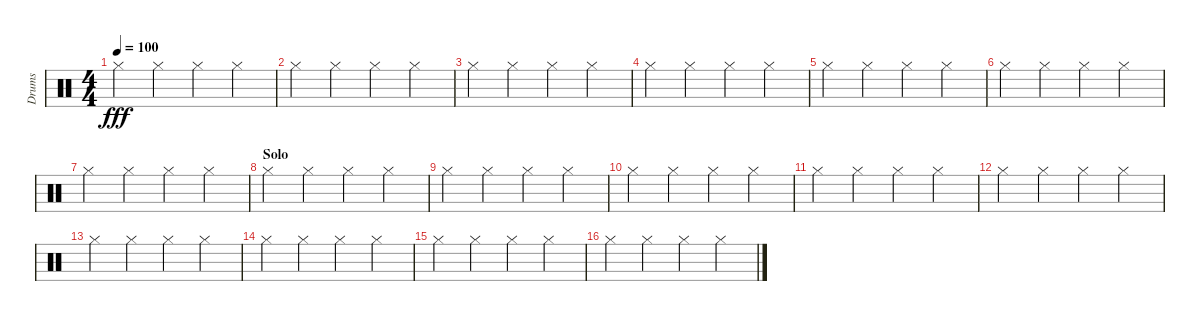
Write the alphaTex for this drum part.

\defaultSystemsLayout 4
\bracketExtendMode groupsimilarinstruments
\otherSystemsTrackNameOrientation horizontal
\track ("Prakarsh" "Drums") {instrument percussion}
\staff {score}
\articulation defaults
\ts (4 4)
\tempo 100
\clef neutral
\ks c "Hi-Hat (closed)".4{dy fff beam Down} "Hi-Hat (closed)".4{beam Down} "Hi-Hat (closed)".4{beam Down} "Hi-Hat (closed)".4{beam Down}
|
"Hi-Hat (closed)".4{beam Down} "Hi-Hat (closed)".4{beam Down} "Hi-Hat (closed)".4{beam Down} "Hi-Hat (closed)".4{beam Down} |
"Hi-Hat (closed)".4{beam Down} "Hi-Hat (closed)".4{beam Down} "Hi-Hat (closed)".4{beam Down} "Hi-Hat (closed)".4{beam Down} |
"Hi-Hat (closed)".4{beam Down} "Hi-Hat (closed)".4{beam Down} "Hi-Hat (closed)".4{beam Down} "Hi-Hat (closed)".4{beam Down} |
"Hi-Hat (closed)".4{beam Down} "Hi-Hat (closed)".4{beam Down} "Hi-Hat (closed)".4{beam Down} "Hi-Hat (closed)".4{beam Down} |
"Hi-Hat (closed)".4{beam Down} "Hi-Hat (closed)".4{beam Down} "Hi-Hat (closed)".4{beam Down} "Hi-Hat (closed)".4{beam Down} |
"Hi-Hat (closed)".4{beam Down} "Hi-Hat (closed)".4{beam Down} "Hi-Hat (closed)".4{beam Down} "Hi-Hat (closed)".4{beam Down} |
\section ("" "Solo")
"Hi-Hat (closed)".4{beam Down} "Hi-Hat (closed)".4{beam Down} "Hi-Hat (closed)".4{beam Down} "Hi-Hat (closed)".4{beam Down} |
"Hi-Hat (closed)".4{beam Down} "Hi-Hat (closed)".4{beam Down} "Hi-Hat (closed)".4{beam Down} "Hi-Hat (closed)".4{beam Down} |
"Hi-Hat (closed)".4{beam Down} "Hi-Hat (closed)".4{beam Down} "Hi-Hat (closed)".4{beam Down} "Hi-Hat (closed)".4{beam Down} |
"Hi-Hat (closed)".4{beam Down} "Hi-Hat (closed)".4{beam Down} "Hi-Hat (closed)".4{beam Down} "Hi-Hat (closed)".4{beam Down} |
"Hi-Hat (closed)".4{beam Down} "Hi-Hat (closed)".4{beam Down} "Hi-Hat (closed)".4{beam Down} "Hi-Hat (closed)".4{beam Down} |
"Hi-Hat (closed)".4{beam Down} "Hi-Hat (closed)".4{beam Down} "Hi-Hat (closed)".4{beam Down} "Hi-Hat (closed)".4{beam Down} |
"Hi-Hat (closed)".4{beam Down} "Hi-Hat (closed)".4{beam Down} "Hi-Hat (closed)".4{beam Down} "Hi-Hat (closed)".4{beam Down} |
"Hi-Hat (closed)".4{beam Down} "Hi-Hat (closed)".4{beam Down} "Hi-Hat (closed)".4{beam Down} "Hi-Hat (closed)".4{beam Down} |
"Hi-Hat (closed)".4{beam Down} "Hi-Hat (closed)".4{beam Down} "Hi-Hat (closed)".4{beam Down} "Hi-Hat (closed)".4{beam Down}
